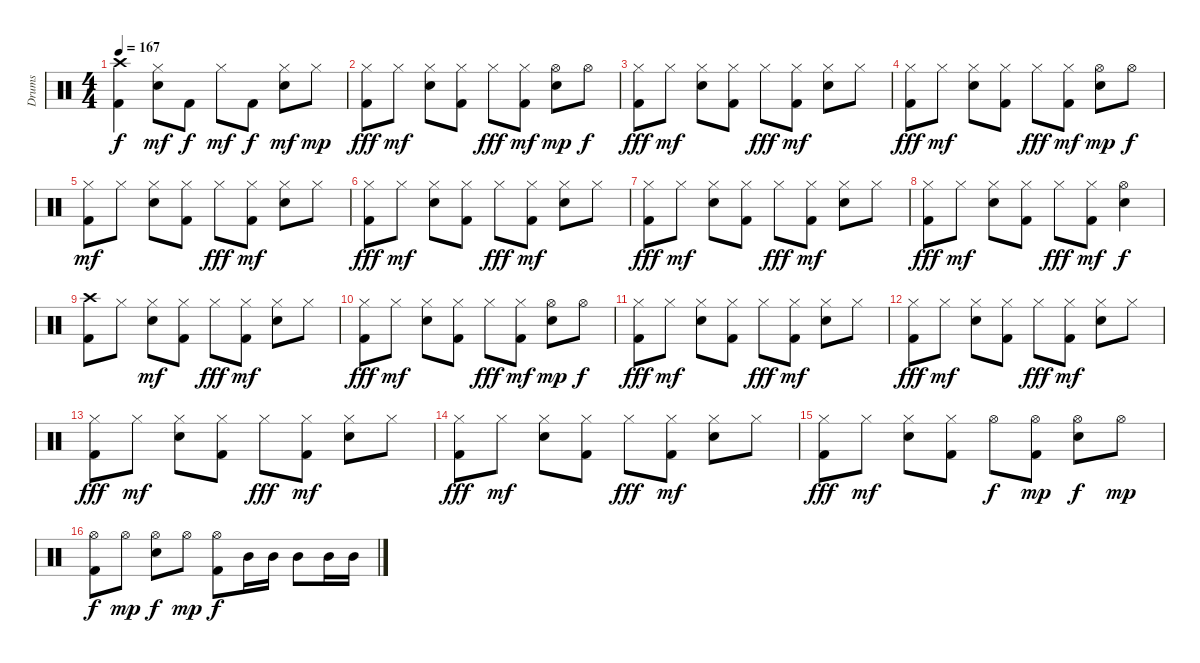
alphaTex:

\track ("Drums" "Drums") {instrument percussion}
\staff {score}
\articulation defaults
\ts (4 4)
\tempo 167
\clef neutral
\ks c
("Crash high (hit)" "Kick (hit) 2").4{dy f} ("Hi-Hat (closed)" "Electric Snare (hit)").8{dy mf} "Kick (hit) 2".8{dy f} "Hi-Hat (closed)".8{dy mf} "Kick (hit) 2".8{dy f} ("Hi-Hat (closed)" "Electric Snare (hit)").8{dy mf} "Hi-Hat (closed)".8{dy mp} |
("Hi-Hat (closed)" "Kick (hit) 2").8{dy fff} "Hi-Hat (closed)".8{dy mf} ("Hi-Hat (closed)" "Electric Snare (hit)").8 ("Hi-Hat (closed)" "Kick (hit) 2").8 "Hi-Hat (closed)".8{dy fff} ("Hi-Hat (closed)" "Kick (hit) 2").8{dy mf} ("Hi-Hat (open)" "Electric Snare (hit)").8{dy mp} "Hi-Hat (open)".8{dy f} |
("Hi-Hat (closed)" "Kick (hit) 2").8{dy fff} "Hi-Hat (closed)".8{dy mf} ("Hi-Hat (closed)" "Electric Snare (hit)").8 ("Hi-Hat (closed)" "Kick (hit) 2").8 "Hi-Hat (closed)".8{dy fff} ("Hi-Hat (closed)" "Kick (hit) 2").8{dy mf} ("Hi-Hat (closed)" "Electric Snare (hit)").8 "Hi-Hat (closed)".8 |
("Hi-Hat (closed)" "Kick (hit) 2").8{dy fff} "Hi-Hat (closed)".8{dy mf} ("Hi-Hat (closed)" "Electric Snare (hit)").8 ("Hi-Hat (closed)" "Kick (hit) 2").8 "Hi-Hat (closed)".8{dy fff} ("Hi-Hat (closed)" "Kick (hit) 2").8{dy mf} ("Hi-Hat (open)" "Electric Snare (hit)").8{dy mp} "Hi-Hat (open)".8{dy f} |
("Hi-Hat (closed)" "Kick (hit) 2").8{dy mf} "Hi-Hat (closed)".8 ("Hi-Hat (closed)" "Electric Snare (hit)").8 ("Hi-Hat (closed)" "Kick (hit) 2").8 "Hi-Hat (closed)".8{dy fff} ("Hi-Hat (closed)" "Kick (hit) 2").8{dy mf} ("Hi-Hat (closed)" "Electric Snare (hit)").8 "Hi-Hat (closed)".8 |
("Hi-Hat (closed)" "Kick (hit) 2").8{dy fff} "Hi-Hat (closed)".8{dy mf} ("Hi-Hat (closed)" "Electric Snare (hit)").8 ("Hi-Hat (closed)" "Kick (hit) 2").8 "Hi-Hat (closed)".8{dy fff} ("Hi-Hat (closed)" "Kick (hit) 2").8{dy mf} ("Hi-Hat (closed)" "Electric Snare (hit)").8 "Hi-Hat (closed)".8 |
("Hi-Hat (closed)" "Kick (hit) 2").8{dy fff} "Hi-Hat (closed)".8{dy mf} ("Hi-Hat (closed)" "Electric Snare (hit)").8 ("Hi-Hat (closed)" "Kick (hit) 2").8 "Hi-Hat (closed)".8{dy fff} ("Hi-Hat (closed)" "Kick (hit) 2").8{dy mf} ("Hi-Hat (closed)" "Electric Snare (hit)").8 "Hi-Hat (closed)".8 |
("Hi-Hat (closed)" "Kick (hit) 2").8{dy fff} "Hi-Hat (closed)".8{dy mf} ("Hi-Hat (closed)" "Electric Snare (hit)").8 ("Hi-Hat (closed)" "Kick (hit) 2").8 "Hi-Hat (closed)".8{dy fff} ("Hi-Hat (closed)" "Kick (hit) 2").8{dy mf} ("Hi-Hat (open)" "Electric Snare (hit)").4{dy f} |
("Crash high (hit)" "Kick (hit) 2").8 "Hi-Hat (closed)".8 ("Hi-Hat (closed)" "Electric Snare (hit)").8{dy mf} ("Hi-Hat (closed)" "Kick (hit) 2").8 "Hi-Hat (closed)".8{dy fff} ("Hi-Hat (closed)" "Kick (hit) 2").8{dy mf} ("Hi-Hat (closed)" "Electric Snare (hit)").8 "Hi-Hat (closed)".8 |
("Hi-Hat (closed)" "Kick (hit) 2").8{dy fff} "Hi-Hat (closed)".8{dy mf} ("Hi-Hat (closed)" "Electric Snare (hit)").8 ("Hi-Hat (closed)" "Kick (hit) 2").8 "Hi-Hat (closed)".8{dy fff} ("Hi-Hat (closed)" "Kick (hit) 2").8{dy mf} ("Hi-Hat (open)" "Electric Snare (hit)").8{dy mp} "Hi-Hat (open)".8{dy f} |
("Hi-Hat (closed)" "Kick (hit) 2").8{dy fff} "Hi-Hat (closed)".8{dy mf} ("Hi-Hat (closed)" "Electric Snare (hit)").8 ("Hi-Hat (closed)" "Kick (hit) 2").8 "Hi-Hat (closed)".8{dy fff} ("Hi-Hat (closed)" "Kick (hit) 2").8{dy mf} ("Hi-Hat (closed)" "Electric Snare (hit)").8 "Hi-Hat (closed)".8 |
("Hi-Hat (closed)" "Kick (hit) 2").8{dy fff} "Hi-Hat (closed)".8{dy mf} ("Hi-Hat (closed)" "Electric Snare (hit)").8 ("Hi-Hat (closed)" "Kick (hit) 2").8 "Hi-Hat (closed)".8{dy fff} ("Hi-Hat (closed)" "Kick (hit) 2").8{dy mf} ("Hi-Hat (closed)" "Electric Snare (hit)").8 "Hi-Hat (closed)".8 |
("Hi-Hat (closed)" "Kick (hit) 2").8{dy fff} "Hi-Hat (closed)".8{dy mf} ("Hi-Hat (closed)" "Electric Snare (hit)").8 ("Hi-Hat (closed)" "Kick (hit) 2").8 "Hi-Hat (closed)".8{dy fff} ("Hi-Hat (closed)" "Kick (hit) 2").8{dy mf} ("Hi-Hat (closed)" "Electric Snare (hit)").8 "Hi-Hat (closed)".8 |
("Hi-Hat (closed)" "Kick (hit) 2").8{dy fff} "Hi-Hat (closed)".8{dy mf} ("Hi-Hat (closed)" "Electric Snare (hit)").8 ("Hi-Hat (closed)" "Kick (hit) 2").8 "Hi-Hat (closed)".8{dy fff} ("Hi-Hat (closed)" "Kick (hit) 2").8{dy mf} ("Hi-Hat (closed)" "Electric Snare (hit)").8 "Hi-Hat (closed)".8 |
("Hi-Hat (closed)" "Kick (hit) 2").8{dy fff} "Hi-Hat (closed)".8{dy mf} ("Hi-Hat (closed)" "Electric Snare (hit)").8 ("Hi-Hat (closed)" "Kick (hit) 2").8 "Hi-Hat (open)".8{dy f} ("Hi-Hat (open)" "Kick (hit) 2").8{dy mp} ("Hi-Hat (open)" "Electric Snare (hit)").8{dy f} "Hi-Hat (open)".8{dy mp} |
("Hi-Hat (open)" "Kick (hit) 2").8{dy f} "Hi-Hat (open)".8{dy mp} ("Hi-Hat (open)" "Electric Snare (hit)").8{dy f} "Hi-Hat (open)".8{dy mp} ("Hi-Hat (open)" "Kick (hit) 2").8{dy f} "Mid Tom (hit)".16 "Mid Tom (hit)".16 "Mid Tom (hit)".8 "Mid Tom (hit)".16 "Mid Tom (hit)".16
